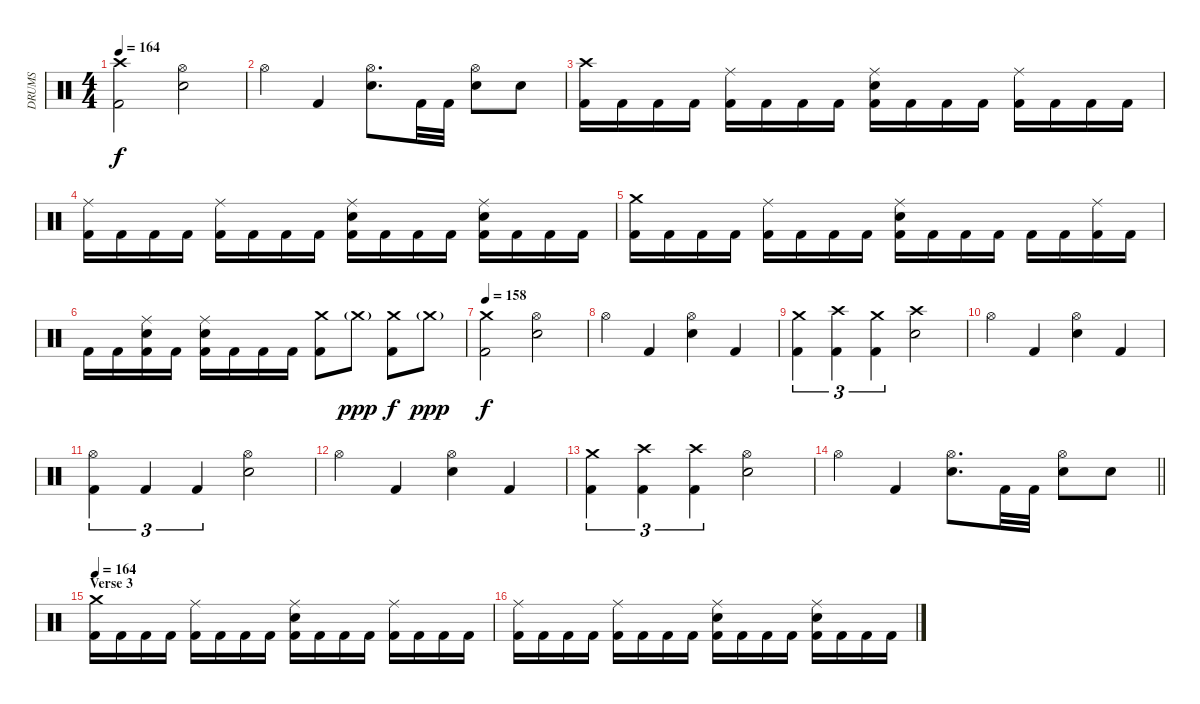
\track ("DRUMS" "DRUMS") {instrument percussion}
\staff {score}
\articulation defaults
\ts (4 4)
\tempo 164
\clef neutral
\ks c
("Crash high (hit)" "Kick (hit) 2").2{dy f} ("Hi-Hat (open)" "Snare (hit) 2").2 |
"Hi-Hat (open)".4 "Kick (hit) 2".4 ("Hi-Hat (open)" "Snare (hit) 2").8{d} "Kick (hit) 2".32 "Kick (hit) 2".32 ("Hi-Hat (open)" "Snare (hit) 2").8 "Snare (hit) 2".8 |
("Crash high (hit)" "Kick (hit) 2").16 "Kick (hit) 2".16 "Kick (hit) 2".16 "Kick (hit) 2".16 ("Ride (middle)" "Kick (hit) 2").16 "Kick (hit) 2".16 "Kick (hit) 2".16 "Kick (hit) 2".16 ("Ride (middle)" "Snare (hit) 2" "Kick (hit) 2").16 "Kick (hit) 2".16 "Kick (hit) 2".16 "Kick (hit) 2".16 ("Ride (middle)" "Kick (hit) 2").16 "Kick (hit) 2".16 "Kick (hit) 2".16 "Kick (hit) 2".16 |
("Ride (middle)" "Kick (hit) 2").16 "Kick (hit) 2".16 "Kick (hit) 2".16 "Kick (hit) 2".16 ("Ride (middle)" "Kick (hit) 2").16 "Kick (hit) 2".16 "Kick (hit) 2".16 "Kick (hit) 2".16 ("Ride (middle)" "Snare (hit) 2" "Kick (hit) 2").16 "Kick (hit) 2".16 "Kick (hit) 2".16 "Kick (hit) 2".16 ("Ride (middle)" "Snare (hit) 2" "Kick (hit) 2").16 "Kick (hit) 2".16 "Kick (hit) 2".16 "Kick (hit) 2".16 |
("Crash medium (hit)" "Kick (hit) 2").16 "Kick (hit) 2".16 "Kick (hit) 2".16 "Kick (hit) 2".16 ("Ride (middle)" "Kick (hit) 2").16 "Kick (hit) 2".16 "Kick (hit) 2".16 "Kick (hit) 2".16 ("Ride (middle)" "Snare (hit) 2" "Kick (hit) 2").16 "Kick (hit) 2".16 "Kick (hit) 2".16 "Kick (hit) 2".16 "Kick (hit) 2".16 "Kick (hit) 2".16 ("Ride (middle)" "Kick (hit) 2").16 "Kick (hit) 2".16 |
"Kick (hit) 2".16 "Kick (hit) 2".16 ("Ride (middle)" "Snare (hit) 2" "Kick (hit) 2").16 "Kick (hit) 2".16 ("Ride (middle)" "Snare (hit) 2" "Kick (hit) 2").16 "Kick (hit) 2".16 "Kick (hit) 2".16 "Kick (hit) 2".16 ("Crash medium (hit)" "Kick (hit) 2").8 "Crash medium (hit)"{g}.8{dy ppp} ("Crash medium (hit)" "Kick (hit) 2").8{dy f} "Crash medium (hit)"{g}.8{dy ppp} |
\tempo 158
("Crash medium (hit)" "Kick (hit) 2").2{dy f} ("Hi-Hat (open)" "Snare (hit) 2").2 |
"Hi-Hat (open)".4 "Kick (hit) 2".4 ("Hi-Hat (open)" "Snare (hit) 2").4 "Kick (hit) 2".4 |
("Crash medium (hit)" "Kick (hit) 2").4{tu (3 2)} ("Crash high (hit)" "Kick (hit) 2").4{tu (3 2)} ("Crash medium (hit)" "Kick (hit) 2").4{tu (3 2)} ("Crash high (hit)" "Snare (hit) 2").2 |
"Hi-Hat (open)".4 "Kick (hit) 2".4 ("Hi-Hat (open)" "Snare (hit) 2").4 "Kick (hit) 2".4 |
("Hi-Hat (open)" "Kick (hit) 2").4{tu (3 2)} "Kick (hit) 2".4{tu (3 2)} "Kick (hit) 2".4{tu (3 2)} ("Hi-Hat (open)" "Snare (hit) 2").2 |
"Hi-Hat (open)".4 "Kick (hit) 2".4 ("Hi-Hat (open)" "Snare (hit) 2").4 "Kick (hit) 2".4 |
("Crash medium (hit)" "Kick (hit) 2").4{tu (3 2)} ("Crash high (hit)" "Kick (hit) 2").4{tu (3 2)} ("Crash high (hit)" "Kick (hit) 2").4{tu (3 2)} ("Hi-Hat (open)" "Snare (hit) 2").2 |
\barLineRight lightlight "Hi-Hat (open)".4 "Kick (hit) 2".4
("Hi-Hat (open)" "Snare (hit) 2").8{d} "Kick (hit) 2".32 "Kick (hit) 2".32 ("Hi-Hat (open)" "Snare (hit) 2").8 "Snare (hit) 2".8 |
\section ("" "Verse 3")
\tempo 164
("Crash medium (hit)" "Kick (hit) 2").16 "Kick (hit) 2".16 "Kick (hit) 2".16 "Kick (hit) 2".16 ("Ride (middle)" "Kick (hit) 2").16 "Kick (hit) 2".16 "Kick (hit) 2".16 "Kick (hit) 2".16 ("Ride (middle)" "Snare (hit) 2" "Kick (hit) 2").16 "Kick (hit) 2".16 "Kick (hit) 2".16 "Kick (hit) 2".16 ("Ride (middle)" "Kick (hit) 2").16 "Kick (hit) 2".16 "Kick (hit) 2".16 "Kick (hit) 2".16 |
("Ride (middle)" "Kick (hit) 2").16 "Kick (hit) 2".16 "Kick (hit) 2".16 "Kick (hit) 2".16 ("Ride (middle)" "Kick (hit) 2").16 "Kick (hit) 2".16 "Kick (hit) 2".16 "Kick (hit) 2".16 ("Ride (middle)" "Snare (hit) 2" "Kick (hit) 2").16 "Kick (hit) 2".16 "Kick (hit) 2".16 "Kick (hit) 2".16 ("Ride (middle)" "Snare (hit) 2" "Kick (hit) 2").16 "Kick (hit) 2".16 "Kick (hit) 2".16 "Kick (hit) 2".16
